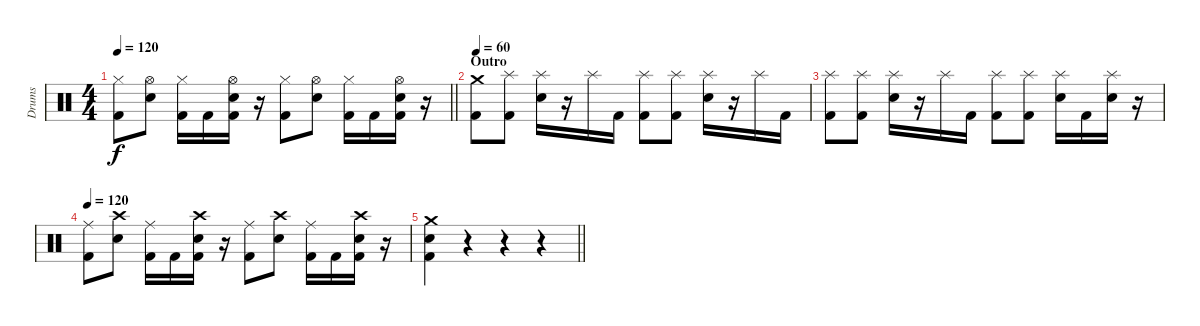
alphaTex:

\track ("Drums" "Drums") {instrument percussion}
\staff {score}
\articulation defaults
\ts (4 4)
\tempo 120
\clef neutral
\barLineRight lightlight
\ks c
("Kick (hit) 2" "Hi-Hat (closed)").8{dy f} ("Snare (hit) 2" "Hi-Hat (open)").8 ("Kick (hit) 2" "Hi-Hat (closed)").16 "Kick (hit) 2".16 ("Kick (hit) 2" "Snare (hit) 2" "Hi-Hat (open)").16 r.16 ("Kick (hit) 2" "Hi-Hat (closed)").8 ("Snare (hit) 2" "Hi-Hat (open)").8 ("Kick (hit) 2" "Hi-Hat (closed)").16 "Kick (hit) 2".16 ("Kick (hit) 2" "Snare (hit) 2" "Hi-Hat (open)").16 r.16 |
\section ("" "Outro")
\tempo 60
("Kick (hit) 2" "Crash medium (hit)").8 ("Kick (hit) 2" "Splash (hit)").8 ("Snare (hit) 2" "Splash (hit)").16 r.16 "Splash (hit)".16 "Kick (hit) 2".16 ("Kick (hit) 2" "Splash (hit)").8 ("Kick (hit) 2" "Splash (hit)").8 ("Snare (hit) 2" "Splash (hit)").16 r.16 "Splash (hit)".16 "Kick (hit) 2".16 |
("Kick (hit) 2" "Splash (hit)").8 ("Kick (hit) 2" "Splash (hit)").8 ("Snare (hit) 2" "Splash (hit)").16 r.16 "Splash (hit)".16 "Kick (hit) 2".16 ("Kick (hit) 2" "Splash (hit)").8 ("Kick (hit) 2" "Splash (hit)").8 ("Snare (hit) 2" "Splash (hit)").16 "Kick (hit) 2".16 ("Snare (hit) 2" "Splash (hit)").16 r.16 |
\tempo 120
("Kick (hit) 2" "Ride (middle)").8 ("Snare (hit) 2" "Crash high (hit)").8 ("Kick (hit) 2" "Ride (middle)").16 "Kick (hit) 2".16 ("Kick (hit) 2" "Snare (hit) 2" "Crash high (hit)").16 r.16 ("Kick (hit) 2" "Ride (middle)").8 ("Snare (hit) 2" "Crash high (hit)").8 ("Kick (hit) 2" "Ride (middle)").16 "Kick (hit) 2".16 ("Kick (hit) 2" "Snare (hit) 2" "Crash high (hit)").16 r.16 |
\barLineRight lightlight
("Kick (hit) 2" "Snare (hit) 2" "Crash medium (hit)").4 r.4 r.4 r.4
